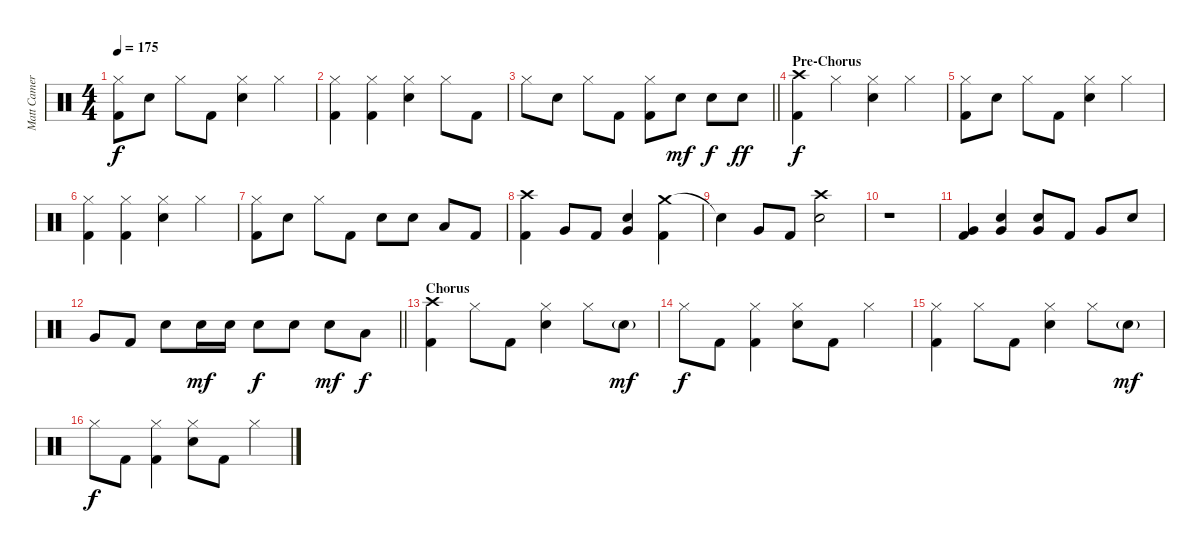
\track ("Matt Cameron Drum" "Matt Camer") {instrument percussion}
\staff {score}
\articulation defaults
\ts (4 4)
\tempo 175
\clef neutral
\ks c
("Hi-Hat (closed)" "Kick (hit) 2").8{dy f} "Electric Snare (hit)".8 "Hi-Hat (closed)".8 "Kick (hit) 2".8 ("Hi-Hat (closed)" "Electric Snare (hit)").4 "Hi-Hat (closed)".4 |
("Hi-Hat (closed)" "Kick (hit) 2").4 ("Hi-Hat (closed)" "Kick (hit) 2").4 ("Hi-Hat (closed)" "Electric Snare (hit)").4 "Hi-Hat (closed)".8 "Kick (hit) 2".8 |
\barLineRight lightlight "Hi-Hat (closed)".8 "Electric Snare (hit)".8 "Hi-Hat (closed)".8 "Kick (hit) 2".8
("Hi-Hat (closed)" "Kick (hit) 2").8 "Electric Snare (hit)".8{dy mf} "Electric Snare (hit)".8{dy f} "Electric Snare (hit)".8{dy ff} |
\section ("" "Pre-Chorus")
("Crash high (hit)" "Kick (hit) 2").4{dy f} "Hi-Hat (closed)".4 ("Hi-Hat (closed)" "Electric Snare (hit)").4 "Hi-Hat (closed)".4 |
("Hi-Hat (closed)" "Kick (hit) 2").8 "Electric Snare (hit)".8 "Hi-Hat (closed)".8 "Kick (hit) 2".8 ("Hi-Hat (closed)" "Electric Snare (hit)").4 "Hi-Hat (closed)".4 |
("Hi-Hat (closed)" "Kick (hit) 2").4 ("Hi-Hat (closed)" "Kick (hit) 2").4 ("Hi-Hat (closed)" "Electric Snare (hit)").4 "Hi-Hat (closed)".4 |
("Hi-Hat (closed)" "Kick (hit) 2").8 "Electric Snare (hit)".8 "Hi-Hat (closed)".8 "Kick (hit) 2".8 "Electric Snare (hit)".8 "Electric Snare (hit)".8 "Low Tom (hit)".8 "Kick (hit) 2".8 |
("Crash high (hit)" "Kick (hit) 2").4 "Very Low Tom (hit)".8 "Kick (hit) 2".8 ("Very Low Tom (hit)" "Electric Snare (hit)").4 ("Crash medium (hit)" "Kick (hit) 2").4 |
"Snare (hit)"{t}.4 "Very Low Tom (hit)".8 "Kick (hit) 2".8 ("Crash high (hit)" "Electric Snare (hit)").2 |
r.1 |
("Very Low Tom (hit)" "Kick (hit) 2").4 ("Very Low Tom (hit)" "Electric Snare (hit)").4 ("Very Low Tom (hit)" "Electric Snare (hit)").8 "Kick (hit) 2".8 "Very Low Tom (hit)".8 "Electric Snare (hit)".8 |
\barLineRight lightlight "Very Low Tom (hit)".8 "Kick (hit) 2".8 "Electric Snare (hit)".8 "Electric Snare (hit)".16{dy mf} "Electric Snare (hit)".16 "Electric Snare (hit)".8{dy f} "Electric Snare (hit)".8 "Electric Snare (hit)".8{dy mf} "Low Tom (hit)".8{dy f}
|
\section ("" "Chorus")
("Crash high (hit)" "Kick (hit) 2").4 "Hi-Hat (closed)".8 "Kick (hit) 2".8 ("Hi-Hat (closed)" "Electric Snare (hit)").4 "Hi-Hat (closed)".8 "Electric Snare (hit)"{g}.8{dy mf} |
"Hi-Hat (closed)".8{dy f} "Kick (hit) 2".8 ("Hi-Hat (closed)" "Kick (hit) 2").4 ("Hi-Hat (closed)" "Electric Snare (hit)").8 "Kick (hit) 2".8 "Hi-Hat (closed)".4 |
("Hi-Hat (closed)" "Kick (hit) 2").4 "Hi-Hat (closed)".8 "Kick (hit) 2".8 ("Hi-Hat (closed)" "Electric Snare (hit)").4 "Hi-Hat (closed)".8 "Electric Snare (hit)"{g}.8{dy mf} |
"Hi-Hat (closed)".8{dy f} "Kick (hit) 2".8 ("Hi-Hat (closed)" "Kick (hit) 2").4 ("Hi-Hat (closed)" "Electric Snare (hit)").8 "Kick (hit) 2".8 "Hi-Hat (closed)".4
